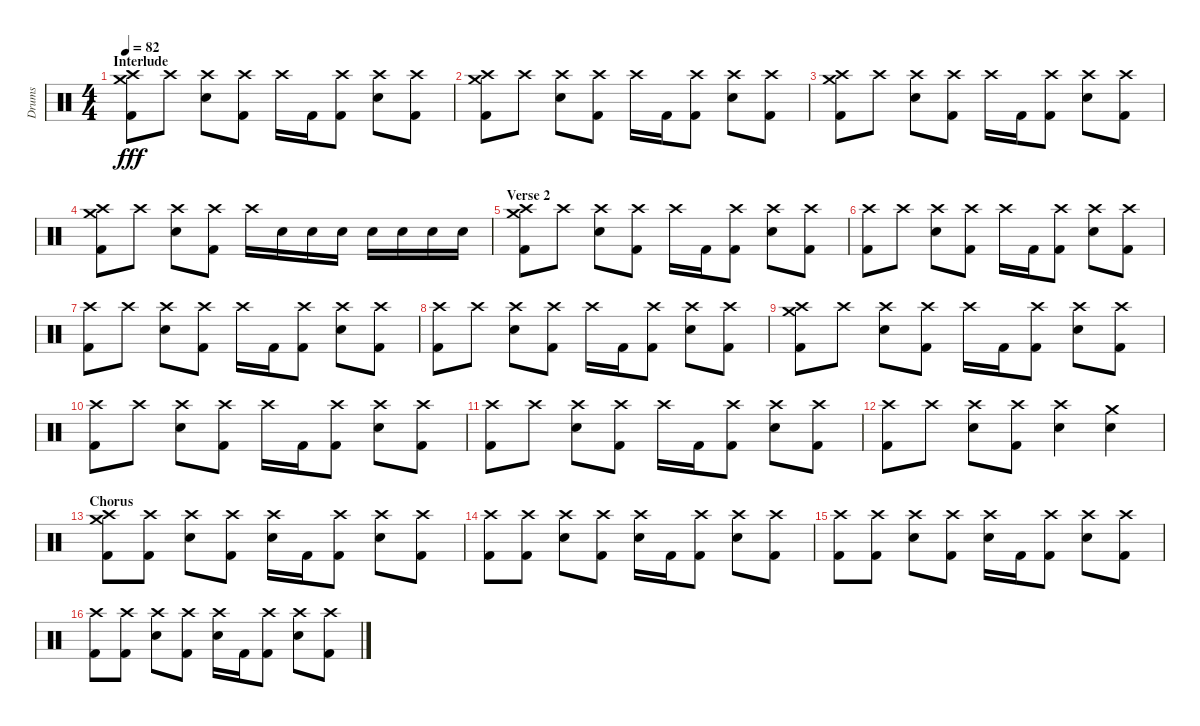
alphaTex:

\track ("Drums" "Drums") {instrument percussion}
\staff {score}
\articulation defaults
\ts (4 4)
\section ("" "Interlude")
\tempo 82
\clef neutral
\ks c
("Crash high (hit)" "Crash medium (hit)" "Kick (hit) 2").8{dy fff} "Crash high (hit)".8 ("Crash high (hit)" "Electric Snare (hit)").8 ("Crash high (hit)" "Kick (hit) 2").8 "Crash high (hit)".16 "Kick (hit) 2".16 ("Crash high (hit)" "Kick (hit) 2").8 ("Crash high (hit)" "Electric Snare (hit)").8 ("Crash high (hit)" "Kick (hit) 2").8 |
("Crash high (hit)" "Crash medium (hit)" "Kick (hit) 2").8 "Crash high (hit)".8 ("Crash high (hit)" "Electric Snare (hit)").8 ("Crash high (hit)" "Kick (hit) 2").8 "Crash high (hit)".16 "Kick (hit) 2".16 ("Crash high (hit)" "Kick (hit) 2").8 ("Crash high (hit)" "Electric Snare (hit)").8 ("Crash high (hit)" "Kick (hit) 2").8 |
("Crash high (hit)" "Crash medium (hit)" "Kick (hit) 2").8 "Crash high (hit)".8 ("Crash high (hit)" "Electric Snare (hit)").8 ("Crash high (hit)" "Kick (hit) 2").8 "Crash high (hit)".16 "Kick (hit) 2".16 ("Crash high (hit)" "Kick (hit) 2").8 ("Crash high (hit)" "Electric Snare (hit)").8 ("Crash high (hit)" "Kick (hit) 2").8 |
("Crash high (hit)" "Crash medium (hit)" "Kick (hit) 2").8 "Crash high (hit)".8 ("Crash high (hit)" "Electric Snare (hit)").8 ("Crash high (hit)" "Kick (hit) 2").8 "Crash high (hit)".16 "Electric Snare (hit)".16 "Electric Snare (hit)".16 "Electric Snare (hit)".16 "Electric Snare (hit)".16 "Electric Snare (hit)".16 "Electric Snare (hit)".16 "Electric Snare (hit)".16 |
\section ("" "Verse 2")
("Crash high (hit)" "Crash medium (hit)" "Kick (hit) 2").8 "Crash high (hit)".8 ("Crash high (hit)" "Electric Snare (hit)").8 ("Crash high (hit)" "Kick (hit) 2").8 "Crash high (hit)".16 "Kick (hit) 2".16 ("Crash high (hit)" "Kick (hit) 2").8 ("Crash high (hit)" "Electric Snare (hit)").8 ("Crash high (hit)" "Kick (hit) 2").8 |
("Crash high (hit)" "Kick (hit) 2").8 "Crash high (hit)".8 ("Crash high (hit)" "Electric Snare (hit)").8 ("Crash high (hit)" "Kick (hit) 2").8 "Crash high (hit)".16 "Kick (hit) 2".16 ("Crash high (hit)" "Kick (hit) 2").8 ("Crash high (hit)" "Electric Snare (hit)").8 ("Crash high (hit)" "Kick (hit) 2").8 |
("Crash high (hit)" "Kick (hit) 2").8 "Crash high (hit)".8 ("Crash high (hit)" "Electric Snare (hit)").8 ("Crash high (hit)" "Kick (hit) 2").8 "Crash high (hit)".16 "Kick (hit) 2".16 ("Crash high (hit)" "Kick (hit) 2").8 ("Crash high (hit)" "Electric Snare (hit)").8 ("Crash high (hit)" "Kick (hit) 2").8 |
("Crash high (hit)" "Kick (hit) 2").8 "Crash high (hit)".8 ("Crash high (hit)" "Electric Snare (hit)").8 ("Crash high (hit)" "Kick (hit) 2").8 "Crash high (hit)".16 "Kick (hit) 2".16 ("Crash high (hit)" "Kick (hit) 2").8 ("Crash high (hit)" "Electric Snare (hit)").8 ("Crash high (hit)" "Kick (hit) 2").8 |
("Crash high (hit)" "Crash medium (hit)" "Kick (hit) 2").8 "Crash high (hit)".8 ("Crash high (hit)" "Electric Snare (hit)").8 ("Crash high (hit)" "Kick (hit) 2").8 "Crash high (hit)".16 "Kick (hit) 2".16 ("Crash high (hit)" "Kick (hit) 2").8 ("Crash high (hit)" "Electric Snare (hit)").8 ("Crash high (hit)" "Kick (hit) 2").8 |
("Crash high (hit)" "Kick (hit) 2").8 "Crash high (hit)".8 ("Crash high (hit)" "Electric Snare (hit)").8 ("Crash high (hit)" "Kick (hit) 2").8 "Crash high (hit)".16 "Kick (hit) 2".16 ("Crash high (hit)" "Kick (hit) 2").8 ("Crash high (hit)" "Electric Snare (hit)").8 ("Crash high (hit)" "Kick (hit) 2").8 |
("Crash high (hit)" "Kick (hit) 2").8 "Crash high (hit)".8 ("Crash high (hit)" "Electric Snare (hit)").8 ("Crash high (hit)" "Kick (hit) 2").8 "Crash high (hit)".16 "Kick (hit) 2".16 ("Crash high (hit)" "Kick (hit) 2").8 ("Crash high (hit)" "Electric Snare (hit)").8 ("Crash high (hit)" "Kick (hit) 2").8 |
("Crash high (hit)" "Kick (hit) 2").8 "Crash high (hit)".8 ("Crash high (hit)" "Electric Snare (hit)").8 ("Crash high (hit)" "Kick (hit) 2").8 ("Crash high (hit)" "Electric Snare (hit)").4 ("Crash medium (hit)" "Electric Snare (hit)").4 |
\section ("" "Chorus")
("Crash high (hit)" "Crash medium (hit)" "Kick (hit) 2").8 ("Crash high (hit)" "Kick (hit) 2").8 ("Crash high (hit)" "Electric Snare (hit)").8 ("Crash high (hit)" "Kick (hit) 2").8 ("Crash high (hit)" "Electric Snare (hit)").16 "Kick (hit) 2".16 ("Crash high (hit)" "Kick (hit) 2").8 ("Crash high (hit)" "Electric Snare (hit)").8 ("Crash high (hit)" "Kick (hit) 2").8 |
("Crash high (hit)" "Kick (hit) 2").8 ("Crash high (hit)" "Kick (hit) 2").8 ("Crash high (hit)" "Electric Snare (hit)").8 ("Crash high (hit)" "Kick (hit) 2").8 ("Crash high (hit)" "Electric Snare (hit)").16 "Kick (hit) 2".16 ("Crash high (hit)" "Kick (hit) 2").8 ("Crash high (hit)" "Electric Snare (hit)").8 ("Crash high (hit)" "Kick (hit) 2").8 |
("Crash high (hit)" "Kick (hit) 2").8 ("Crash high (hit)" "Kick (hit) 2").8 ("Crash high (hit)" "Electric Snare (hit)").8 ("Crash high (hit)" "Kick (hit) 2").8 ("Crash high (hit)" "Electric Snare (hit)").16 "Kick (hit) 2".16 ("Crash high (hit)" "Kick (hit) 2").8 ("Crash high (hit)" "Electric Snare (hit)").8 ("Crash high (hit)" "Kick (hit) 2").8 |
("Crash high (hit)" "Kick (hit) 2").8 ("Crash high (hit)" "Kick (hit) 2").8 ("Crash high (hit)" "Electric Snare (hit)").8 ("Crash high (hit)" "Kick (hit) 2").8 ("Crash high (hit)" "Electric Snare (hit)").16 "Kick (hit) 2".16 ("Crash high (hit)" "Kick (hit) 2").8 ("Crash high (hit)" "Electric Snare (hit)").8 ("Crash high (hit)" "Kick (hit) 2").8
